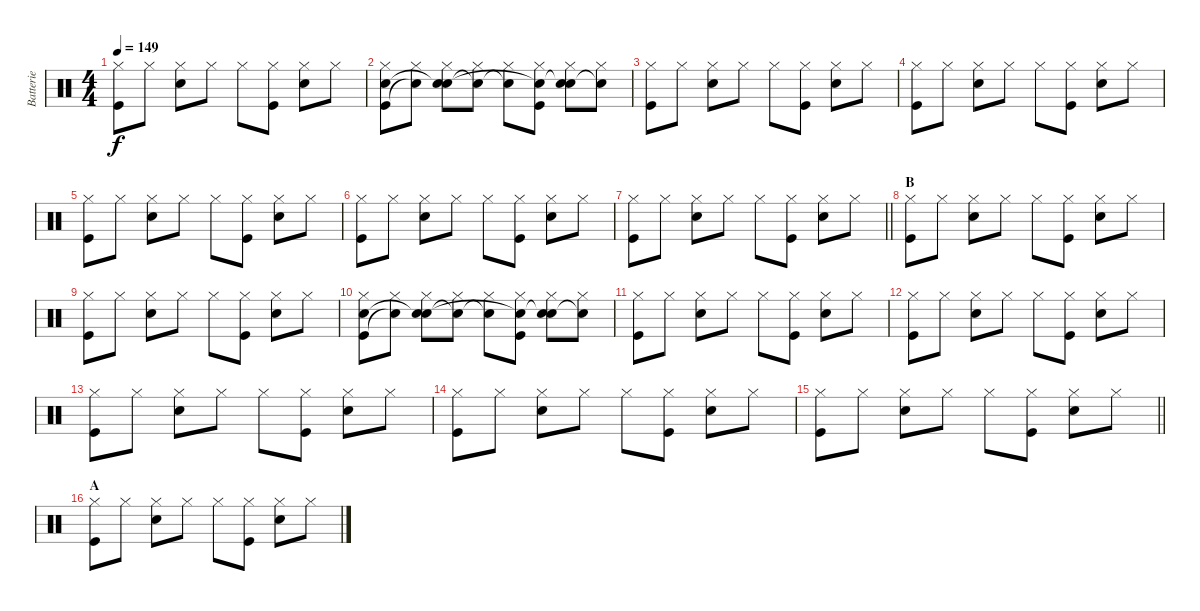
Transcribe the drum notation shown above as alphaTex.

\track ("Batterie" "Batterie") {instrument percussion}
\staff {score}
\articulation defaults
\ts (4 4)
\tempo 149
\clef neutral
\ks c
("Hi-Hat (closed)" "Kick (hit)").8{dy f} "Hi-Hat (closed)".8 ("Hi-Hat (closed)" "Snare (hit) 2").8 "Hi-Hat (closed)".8 "Hi-Hat (closed)".8 ("Hi-Hat (closed)" "Kick (hit)").8 ("Hi-Hat (closed)" "Snare (hit) 2").8 "Hi-Hat (closed)".8 |
("Hi-Hat (closed)" "Kick (hit)" "Snare (hit)").8 ("Hi-Hat (closed)" "Snare (hit)"{t}).8 ("Hi-Hat (closed)" "Snare (hit) 2" "Snare (hit)"{t}).8 ("Hi-Hat (closed)" "Snare (hit)"{t}).8 ("Hi-Hat (closed)" "Snare (hit)"{t}).8 ("Hi-Hat (closed)" "Kick (hit)" "Snare (hit)"{t}).8 ("Hi-Hat (closed)" "Snare (hit) 2" "Snare (hit)"{t}).8 ("Hi-Hat (closed)" "Snare (hit)"{t}).8 |
("Hi-Hat (closed)" "Kick (hit)").8 "Hi-Hat (closed)".8 ("Hi-Hat (closed)" "Snare (hit) 2").8 "Hi-Hat (closed)".8 "Hi-Hat (closed)".8 ("Hi-Hat (closed)" "Kick (hit)").8 ("Hi-Hat (closed)" "Snare (hit) 2").8 "Hi-Hat (closed)".8 |
("Hi-Hat (closed)" "Kick (hit)").8 "Hi-Hat (closed)".8 ("Hi-Hat (closed)" "Snare (hit) 2").8 "Hi-Hat (closed)".8 "Hi-Hat (closed)".8 ("Hi-Hat (closed)" "Kick (hit)").8 ("Hi-Hat (closed)" "Snare (hit) 2").8 "Hi-Hat (closed)".8 |
("Hi-Hat (closed)" "Kick (hit)").8 "Hi-Hat (closed)".8 ("Hi-Hat (closed)" "Snare (hit) 2").8 "Hi-Hat (closed)".8 "Hi-Hat (closed)".8 ("Hi-Hat (closed)" "Kick (hit)").8 ("Hi-Hat (closed)" "Snare (hit) 2").8 "Hi-Hat (closed)".8 |
("Hi-Hat (closed)" "Kick (hit)").8 "Hi-Hat (closed)".8 ("Hi-Hat (closed)" "Snare (hit) 2").8 "Hi-Hat (closed)".8 "Hi-Hat (closed)".8 ("Hi-Hat (closed)" "Kick (hit)").8 ("Hi-Hat (closed)" "Snare (hit) 2").8 "Hi-Hat (closed)".8 |
\barLineRight lightlight
("Hi-Hat (closed)" "Kick (hit)").8 "Hi-Hat (closed)".8 ("Hi-Hat (closed)" "Snare (hit) 2").8 "Hi-Hat (closed)".8 "Hi-Hat (closed)".8 ("Hi-Hat (closed)" "Kick (hit)").8 ("Hi-Hat (closed)" "Snare (hit) 2").8 "Hi-Hat (closed)".8 |
\section ("" "B")
("Hi-Hat (closed)" "Kick (hit)").8 "Hi-Hat (closed)".8 ("Hi-Hat (closed)" "Snare (hit) 2").8 "Hi-Hat (closed)".8 "Hi-Hat (closed)".8 ("Hi-Hat (closed)" "Kick (hit)").8 ("Hi-Hat (closed)" "Snare (hit) 2").8 "Hi-Hat (closed)".8 |
("Hi-Hat (closed)" "Kick (hit)").8 "Hi-Hat (closed)".8 ("Hi-Hat (closed)" "Snare (hit) 2").8 "Hi-Hat (closed)".8 "Hi-Hat (closed)".8 ("Hi-Hat (closed)" "Kick (hit)").8 ("Hi-Hat (closed)" "Snare (hit) 2").8 "Hi-Hat (closed)".8 |
("Hi-Hat (closed)" "Kick (hit)" "Snare (hit)").8 ("Hi-Hat (closed)" "Snare (hit)"{t}).8 ("Hi-Hat (closed)" "Snare (hit) 2" "Snare (hit)"{t}).8 ("Hi-Hat (closed)" "Snare (hit)"{t}).8 ("Hi-Hat (closed)" "Snare (hit)"{t}).8 ("Hi-Hat (closed)" "Kick (hit)" "Snare (hit)"{t}).8 ("Hi-Hat (closed)" "Snare (hit) 2" "Snare (hit)"{t}).8 ("Hi-Hat (closed)" "Snare (hit)"{t}).8 |
("Hi-Hat (closed)" "Kick (hit)").8 "Hi-Hat (closed)".8 ("Hi-Hat (closed)" "Snare (hit) 2").8 "Hi-Hat (closed)".8 "Hi-Hat (closed)".8 ("Hi-Hat (closed)" "Kick (hit)").8 ("Hi-Hat (closed)" "Snare (hit) 2").8 "Hi-Hat (closed)".8 |
("Hi-Hat (closed)" "Kick (hit)").8 "Hi-Hat (closed)".8 ("Hi-Hat (closed)" "Snare (hit) 2").8 "Hi-Hat (closed)".8 "Hi-Hat (closed)".8 ("Hi-Hat (closed)" "Kick (hit)").8 ("Hi-Hat (closed)" "Snare (hit) 2").8 "Hi-Hat (closed)".8 |
("Hi-Hat (closed)" "Kick (hit)").8 "Hi-Hat (closed)".8 ("Hi-Hat (closed)" "Snare (hit) 2").8 "Hi-Hat (closed)".8 "Hi-Hat (closed)".8 ("Hi-Hat (closed)" "Kick (hit)").8 ("Hi-Hat (closed)" "Snare (hit) 2").8 "Hi-Hat (closed)".8 |
("Hi-Hat (closed)" "Kick (hit)").8 "Hi-Hat (closed)".8 ("Hi-Hat (closed)" "Snare (hit) 2").8 "Hi-Hat (closed)".8 "Hi-Hat (closed)".8 ("Hi-Hat (closed)" "Kick (hit)").8 ("Hi-Hat (closed)" "Snare (hit) 2").8 "Hi-Hat (closed)".8 |
\barLineRight lightlight
("Hi-Hat (closed)" "Kick (hit)").8 "Hi-Hat (closed)".8 ("Hi-Hat (closed)" "Snare (hit) 2").8 "Hi-Hat (closed)".8 "Hi-Hat (closed)".8 ("Hi-Hat (closed)" "Kick (hit)").8 ("Hi-Hat (closed)" "Snare (hit) 2").8 "Hi-Hat (closed)".8 |
\section ("" "A")
("Hi-Hat (closed)" "Kick (hit)").8 "Hi-Hat (closed)".8 ("Hi-Hat (closed)" "Snare (hit) 2").8 "Hi-Hat (closed)".8 "Hi-Hat (closed)".8 ("Hi-Hat (closed)" "Kick (hit)").8 ("Hi-Hat (closed)" "Snare (hit) 2").8 "Hi-Hat (closed)".8
